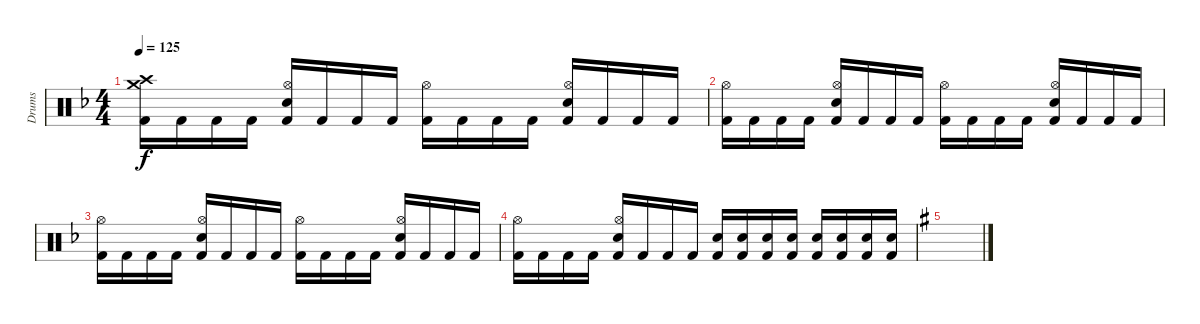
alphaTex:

\track ("Drums" "Drums") {instrument percussion}
\staff {score}
\articulation defaults
\ts (4 4)
\tempo 125
\clef neutral
\ks f
("Crash medium (hit)" "Crash high (hit)" "Kick (hit) 2").16{dy f} "Kick (hit) 2".16 "Kick (hit) 2".16 "Kick (hit) 2".16 ("Hi-Hat (open)" "Snare (hit) 2" "Kick (hit) 2").16 "Kick (hit) 2".16 "Kick (hit) 2".16 "Kick (hit) 2".16 ("Hi-Hat (open)" "Kick (hit) 2").16 "Kick (hit) 2".16 "Kick (hit) 2".16 "Kick (hit) 2".16 ("Hi-Hat (open)" "Snare (hit) 2" "Kick (hit) 2").16 "Kick (hit) 2".16 "Kick (hit) 2".16 "Kick (hit) 2".16 |
("Hi-Hat (open)" "Kick (hit) 2").16 "Kick (hit) 2".16 "Kick (hit) 2".16 "Kick (hit) 2".16 ("Hi-Hat (open)" "Snare (hit) 2" "Kick (hit) 2").16 "Kick (hit) 2".16 "Kick (hit) 2".16 "Kick (hit) 2".16 ("Hi-Hat (open)" "Kick (hit) 2").16 "Kick (hit) 2".16 "Kick (hit) 2".16 "Kick (hit) 2".16 ("Hi-Hat (open)" "Snare (hit) 2" "Kick (hit) 2").16 "Kick (hit) 2".16 "Kick (hit) 2".16 "Kick (hit) 2".16 |
("Hi-Hat (open)" "Kick (hit) 2").16 "Kick (hit) 2".16 "Kick (hit) 2".16 "Kick (hit) 2".16 ("Hi-Hat (open)" "Snare (hit) 2" "Kick (hit) 2").16 "Kick (hit) 2".16 "Kick (hit) 2".16 "Kick (hit) 2".16 ("Hi-Hat (open)" "Kick (hit) 2").16 "Kick (hit) 2".16 "Kick (hit) 2".16 "Kick (hit) 2".16 ("Hi-Hat (open)" "Snare (hit) 2" "Kick (hit) 2").16 "Kick (hit) 2".16 "Kick (hit) 2".16 "Kick (hit) 2".16 |
("Hi-Hat (open)" "Kick (hit) 2").16 "Kick (hit) 2".16 "Kick (hit) 2".16 "Kick (hit) 2".16 ("Hi-Hat (open)" "Snare (hit) 2" "Kick (hit) 2").16 "Kick (hit) 2".16 "Kick (hit) 2".16 "Kick (hit) 2".16 ("Snare (hit) 2" "Kick (hit) 2").16 ("Snare (hit) 2" "Kick (hit) 2").16 ("Snare (hit) 2" "Kick (hit) 2").16 ("Snare (hit) 2" "Kick (hit) 2").16 ("Snare (hit) 2" "Kick (hit) 2").16 ("Snare (hit) 2" "Kick (hit) 2").16 ("Snare (hit) 2" "Kick (hit) 2").16 ("Snare (hit) 2" "Kick (hit) 2").16 |
\ks g
